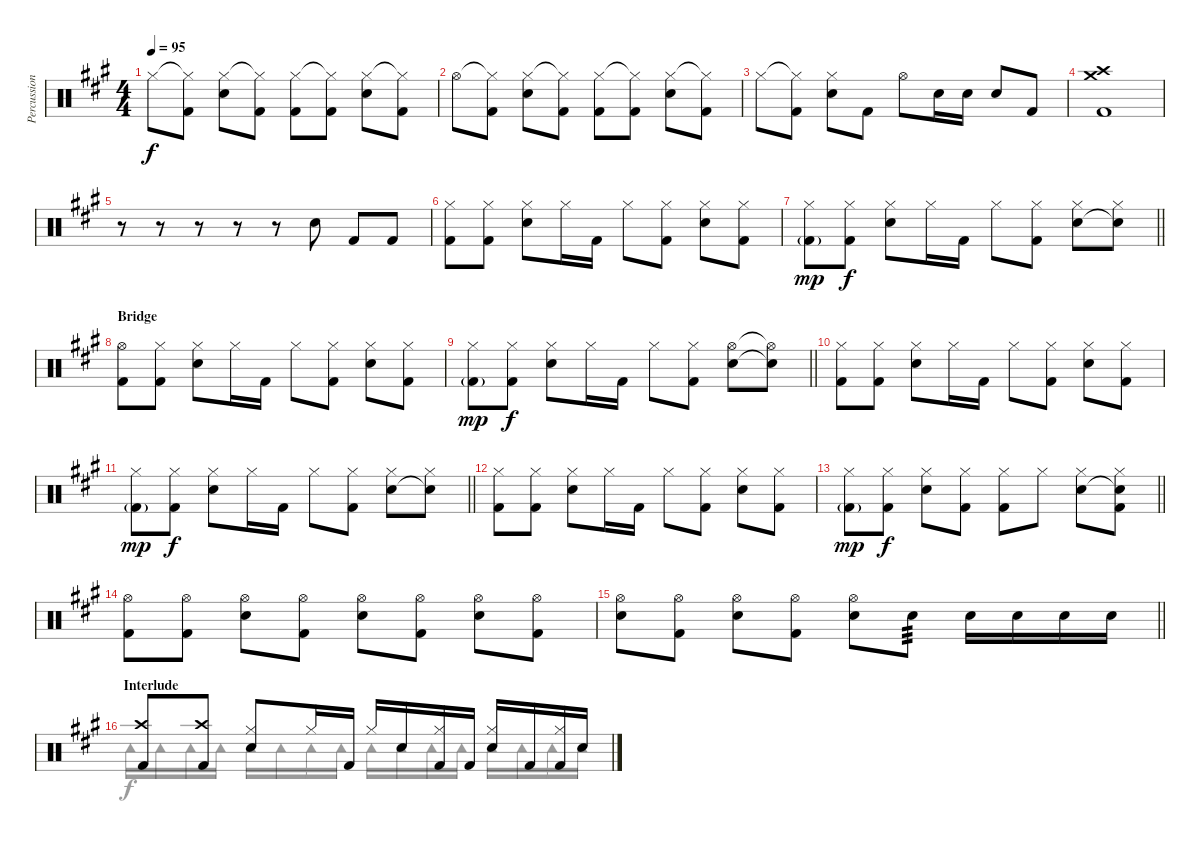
\track ("Percussion" "Percussion") {instrument percussion}
\staff {score}
\articulation defaults
\voice
\ts (4 4)
\tempo 95
\clef neutral
\ks a "Hi-Hat (closed)".8{dy f}
("Hi-Hat (closed)"{t} "Kick (hit) 2").8 ("Hi-Hat (closed)" "Electric Snare (hit)").8 ("Hi-Hat (closed)"{t} "Kick (hit) 2").8 ("Hi-Hat (closed)" "Kick (hit) 2").8 ("Hi-Hat (closed)"{t} "Kick (hit) 2").8 ("Hi-Hat (closed)" "Electric Snare (hit)").8 ("Hi-Hat (closed)"{t} "Kick (hit) 2").8 |
"Hi-Hat (open)".8 ("Hi-Hat (closed)"{t} "Kick (hit) 2").8 ("Hi-Hat (closed)" "Electric Snare (hit)").8 ("Hi-Hat (closed)"{t} "Kick (hit) 2").8 ("Hi-Hat (closed)" "Kick (hit) 2").8 ("Hi-Hat (closed)"{t} "Kick (hit) 2").8 ("Hi-Hat (closed)" "Electric Snare (hit)").8 ("Hi-Hat (closed)"{t} "Kick (hit) 2").8 |
"Hi-Hat (closed)".8 ("Hi-Hat (closed)"{t} "Kick (hit) 2").8 ("Hi-Hat (closed)" "Electric Snare (hit)").8 "Kick (hit) 2".8 "Hi-Hat (open)".8 "Electric Snare (hit)".16 "Electric Snare (hit)".16 "Electric Snare (hit)".8 "Kick (hit) 2".8 |
("Crash high (hit)" "Crash medium (hit)" "Kick (hit) 2").1 |
r.8 r.8 r.8 r.8 r.8 "Electric Snare (hit)".8 "Kick (hit) 2".8 "Kick (hit) 2".8 |
("Hi-Hat (closed)" "Kick (hit) 2").8 ("Hi-Hat (closed)" "Kick (hit) 2").8 ("Hi-Hat (closed)" "Electric Snare (hit)").8 "Hi-Hat (closed)".16 "Kick (hit) 2".16 "Hi-Hat (closed)".8 ("Hi-Hat (closed)" "Kick (hit) 2").8 ("Hi-Hat (closed)" "Electric Snare (hit)").8 ("Hi-Hat (closed)" "Kick (hit) 2").8 |
\barLineRight lightlight
("Hi-Hat (closed)" "Kick (hit) 2"{g}).8{dy mp} ("Hi-Hat (closed)" "Kick (hit) 2").8{dy f} ("Hi-Hat (closed)" "Electric Snare (hit)").8 "Hi-Hat (closed)".16 "Kick (hit) 2".16 "Hi-Hat (closed)".8 ("Hi-Hat (closed)" "Kick (hit) 2").8 ("Hi-Hat (closed)" "Electric Snare (hit)").8 ("Hi-Hat (closed)" "Snare (hit)"{t}).8 |
\section ("" "Bridge")
("Hi-Hat (open)" "Kick (hit) 2").8 ("Hi-Hat (closed)" "Kick (hit) 2").8 ("Hi-Hat (closed)" "Electric Snare (hit)").8 "Hi-Hat (closed)".16 "Kick (hit) 2".16 "Hi-Hat (closed)".8 ("Hi-Hat (closed)" "Kick (hit) 2").8 ("Hi-Hat (closed)" "Electric Snare (hit)").8 ("Hi-Hat (closed)" "Kick (hit) 2").8 |
\barLineRight lightlight
("Hi-Hat (closed)" "Kick (hit) 2"{g}).8{dy mp} ("Hi-Hat (closed)" "Kick (hit) 2").8{dy f} ("Hi-Hat (closed)" "Electric Snare (hit)").8 "Hi-Hat (closed)".16 "Kick (hit) 2".16 "Hi-Hat (closed)".8 ("Hi-Hat (closed)" "Kick (hit) 2").8 ("Hi-Hat (open)" "Electric Snare (hit)").8 ("Hi-Hat (open)"{t} "Snare (hit)"{t}).8 |
("Hi-Hat (closed)" "Kick (hit) 2").8 ("Hi-Hat (closed)" "Kick (hit) 2").8 ("Hi-Hat (closed)" "Electric Snare (hit)").8 "Hi-Hat (closed)".16 "Kick (hit) 2".16 "Hi-Hat (closed)".8 ("Hi-Hat (closed)" "Kick (hit) 2").8 ("Hi-Hat (closed)" "Electric Snare (hit)").8 ("Hi-Hat (closed)" "Kick (hit) 2").8 |
\barLineRight lightlight
("Hi-Hat (closed)" "Kick (hit) 2"{g}).8{dy mp} ("Hi-Hat (closed)" "Kick (hit) 2").8{dy f} ("Hi-Hat (closed)" "Electric Snare (hit)").8 "Hi-Hat (closed)".16 "Kick (hit) 2".16 "Hi-Hat (closed)".8 ("Hi-Hat (closed)" "Kick (hit) 2").8 ("Hi-Hat (closed)" "Electric Snare (hit)").8 ("Hi-Hat (closed)" "Snare (hit)"{t}).8 |
("Hi-Hat (closed)" "Kick (hit) 2").8 ("Hi-Hat (closed)" "Kick (hit) 2").8 ("Hi-Hat (closed)" "Electric Snare (hit)").8 "Hi-Hat (closed)".16 "Kick (hit) 2".16 "Hi-Hat (closed)".8 ("Hi-Hat (closed)" "Kick (hit) 2").8 ("Hi-Hat (closed)" "Electric Snare (hit)").8 ("Hi-Hat (closed)" "Kick (hit) 2").8 |
\barLineRight lightlight
("Hi-Hat (closed)" "Kick (hit) 2"{g}).8{dy mp} ("Hi-Hat (closed)" "Kick (hit) 2").8{dy f} ("Hi-Hat (closed)" "Electric Snare (hit)").8 ("Hi-Hat (closed)" "Kick (hit) 2").8 ("Hi-Hat (closed)" "Kick (hit) 2").8 "Hi-Hat (closed)".8 ("Hi-Hat (closed)" "Electric Snare (hit)").8 ("Hi-Hat (closed)" "Snare (hit)"{t} "Kick (hit) 2").8 |
("Hi-Hat (open)" "Kick (hit) 2").8 ("Hi-Hat (open)" "Kick (hit) 2").8 ("Hi-Hat (open)" "Electric Snare (hit)").8 ("Hi-Hat (open)" "Kick (hit) 2").8 ("Hi-Hat (open)" "Electric Snare (hit)").8 ("Hi-Hat (open)" "Kick (hit) 2").8 ("Hi-Hat (open)" "Electric Snare (hit)").8 ("Hi-Hat (open)" "Kick (hit) 2").8 |
\barLineRight lightlight
("Hi-Hat (open)" "Electric Snare (hit)").8 ("Hi-Hat (open)" "Kick (hit) 2").8 ("Hi-Hat (open)" "Electric Snare (hit)").8 ("Hi-Hat (open)" "Kick (hit) 2").8 ("Hi-Hat (open)" "Electric Snare (hit)").8 "Electric Snare (hit)".8{tp 3} "Electric Snare (hit)".16 "Electric Snare (hit)".16 "Electric Snare (hit)".16 "Electric Snare (hit)".16 |
\section ("" "Interlude")
("Crash high (hit)" "Kick (hit) 2").8 ("Crash high (hit)" "Kick (hit) 2").8 ("Hi-Hat (closed)" "Electric Snare (hit)").8 "Hi-Hat (closed)".16 "Kick (hit) 2".16 "Hi-Hat (closed)".16 "Electric Snare (hit)".16 ("Hi-Hat (closed)" "Kick (hit) 2").16 "Kick (hit) 2".16 ("Hi-Hat (closed)" "Electric Snare (hit)").16 "Kick (hit) 2".16 ("Hi-Hat (closed)" "Kick (hit) 2").16 "Electric Snare (hit)".16
\voice
\clef neutral
\ottava regular
\simile none
\ks a
|
|
|
|
|
|
\barLineRight lightlight
|
|
\barLineRight lightlight
|
|
\barLineRight lightlight
|
|
\barLineRight lightlight
|
|
\barLineRight lightlight
|
"Tambourine (hit)".16 "Tambourine (hit)".16 "Tambourine (hit)".16 "Tambourine (hit)".16 "Tambourine (hit)".16 "Tambourine (hit)".16 "Tambourine (hit)".16 "Tambourine (hit)".16 "Tambourine (hit)".16 "Tambourine (hit)".16 "Tambourine (hit)".16 "Tambourine (hit)".16 "Tambourine (hit)".16 "Tambourine (hit)".16 "Tambourine (hit)".16 "Tambourine (hit)".16
